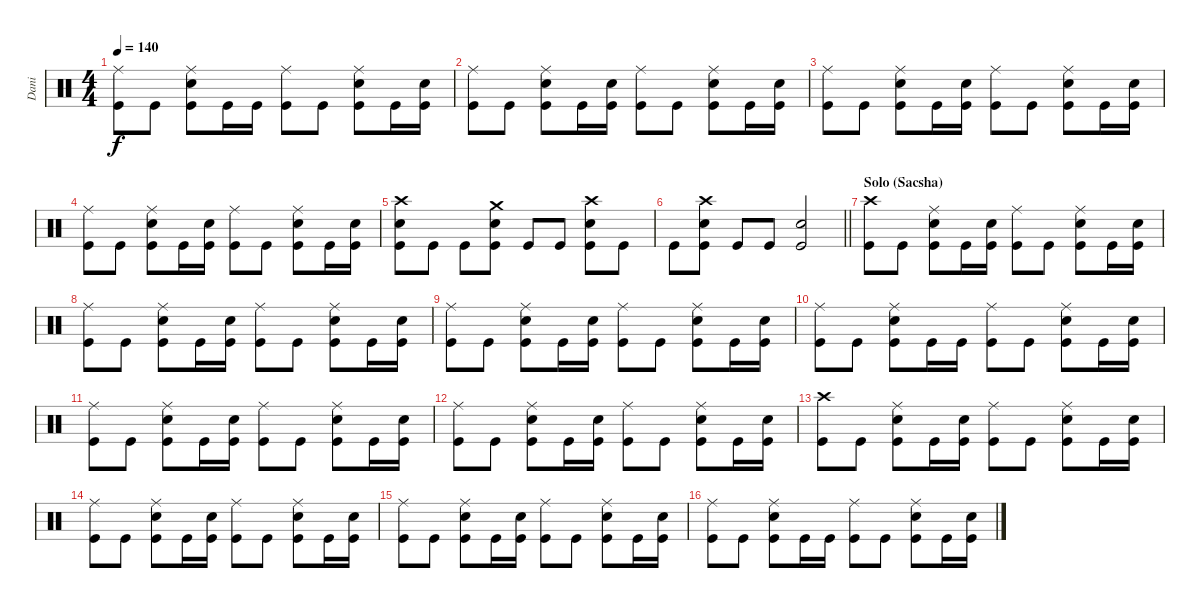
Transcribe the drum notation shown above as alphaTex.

\track ("Dani" "Dani") {instrument percussion}
\staff {score}
\articulation defaults
\ts (4 4)
\tempo 140
\clef neutral
\ks c
("Ride (middle)" "Kick (hit)").8{dy f} "Kick (hit)".8 ("Ride (middle)" "Snare (hit) 2" "Kick (hit)").8 "Kick (hit)".16 "Kick (hit)".16 ("Ride (middle)" "Kick (hit)").8 "Kick (hit)".8 ("Ride (middle)" "Snare (hit) 2" "Kick (hit)").8 "Kick (hit)".16 ("Snare (hit) 2" "Kick (hit)").16 |
("Ride (middle)" "Kick (hit)").8 "Kick (hit)".8 ("Ride (middle)" "Snare (hit) 2" "Kick (hit)").8 "Kick (hit)".16 ("Snare (hit) 2" "Kick (hit)").16 ("Ride (middle)" "Kick (hit)").8 "Kick (hit)".8 ("Ride (middle)" "Snare (hit) 2" "Kick (hit)").8 "Kick (hit)".16 ("Snare (hit) 2" "Kick (hit)").16 |
("Ride (middle)" "Kick (hit)").8 "Kick (hit)".8 ("Ride (middle)" "Snare (hit) 2" "Kick (hit)").8 "Kick (hit)".16 ("Snare (hit) 2" "Kick (hit)").16 ("Ride (middle)" "Kick (hit)").8 "Kick (hit)".8 ("Ride (middle)" "Snare (hit) 2" "Kick (hit)").8 "Kick (hit)".16 ("Snare (hit) 2" "Kick (hit)").16 |
("Ride (middle)" "Kick (hit)").8 "Kick (hit)".8 ("Ride (middle)" "Snare (hit) 2" "Kick (hit)").8 "Kick (hit)".16 ("Snare (hit) 2" "Kick (hit)").16 ("Ride (middle)" "Kick (hit)").8 "Kick (hit)".8 ("Ride (middle)" "Snare (hit) 2" "Kick (hit)").8 "Kick (hit)".16 ("Snare (hit) 2" "Kick (hit)").16 |
("Crash high (hit)" "Snare (hit) 2" "Kick (hit)").8 "Kick (hit)".8 "Kick (hit)".8 ("Crash medium (hit)" "Snare (hit) 2" "Kick (hit)").8 "Kick (hit)".8 "Kick (hit)".8 ("Crash high (hit)" "Snare (hit) 2" "Kick (hit)").8 "Kick (hit)".8 |
\barLineRight lightlight "Kick (hit)".8
("Crash high (hit)" "Snare (hit) 2" "Kick (hit)").8 "Kick (hit)".8 "Kick (hit)".8 ("Snare (hit) 2" "Kick (hit)").2 |
\section ("" "Solo (Sacsha)")
("Crash high (hit)" "Kick (hit)").8 "Kick (hit)".8 ("Ride (middle)" "Snare (hit) 2" "Kick (hit)").8 "Kick (hit)".16 ("Snare (hit) 2" "Kick (hit)").16 ("Ride (middle)" "Kick (hit)").8 "Kick (hit)".8 ("Ride (middle)" "Snare (hit) 2" "Kick (hit)").8 "Kick (hit)".16 ("Snare (hit) 2" "Kick (hit)").16 |
("Ride (middle)" "Kick (hit)").8 "Kick (hit)".8 ("Ride (middle)" "Snare (hit) 2" "Kick (hit)").8 "Kick (hit)".16 ("Snare (hit) 2" "Kick (hit)").16 ("Ride (middle)" "Kick (hit)").8 "Kick (hit)".8 ("Ride (middle)" "Snare (hit) 2" "Kick (hit)").8 "Kick (hit)".16 ("Snare (hit) 2" "Kick (hit)").16 |
("Ride (middle)" "Kick (hit)").8 "Kick (hit)".8 ("Ride (middle)" "Snare (hit) 2" "Kick (hit)").8 "Kick (hit)".16 ("Snare (hit) 2" "Kick (hit)").16 ("Ride (middle)" "Kick (hit)").8 "Kick (hit)".8 ("Ride (middle)" "Snare (hit) 2" "Kick (hit)").8 "Kick (hit)".16 ("Snare (hit) 2" "Kick (hit)").16 |
("Ride (middle)" "Kick (hit)").8 "Kick (hit)".8 ("Ride (middle)" "Snare (hit) 2" "Kick (hit)").8 "Kick (hit)".16 "Kick (hit)".16 ("Ride (middle)" "Kick (hit)").8 "Kick (hit)".8 ("Ride (middle)" "Snare (hit) 2" "Kick (hit)").8 "Kick (hit)".16 ("Snare (hit) 2" "Kick (hit)").16 |
("Ride (middle)" "Kick (hit)").8 "Kick (hit)".8 ("Ride (middle)" "Snare (hit) 2" "Kick (hit)").8 "Kick (hit)".16 ("Snare (hit) 2" "Kick (hit)").16 ("Ride (middle)" "Kick (hit)").8 "Kick (hit)".8 ("Ride (middle)" "Snare (hit) 2" "Kick (hit)").8 "Kick (hit)".16 ("Snare (hit) 2" "Kick (hit)").16 |
("Ride (middle)" "Kick (hit)").8 "Kick (hit)".8 ("Ride (middle)" "Snare (hit) 2" "Kick (hit)").8 "Kick (hit)".16 ("Snare (hit) 2" "Kick (hit)").16 ("Ride (middle)" "Kick (hit)").8 "Kick (hit)".8 ("Ride (middle)" "Snare (hit) 2" "Kick (hit)").8 "Kick (hit)".16 ("Snare (hit) 2" "Kick (hit)").16 |
("Crash high (hit)" "Kick (hit)").8 "Kick (hit)".8 ("Ride (middle)" "Snare (hit) 2" "Kick (hit)").8 "Kick (hit)".16 ("Snare (hit) 2" "Kick (hit)").16 ("Ride (middle)" "Kick (hit)").8 "Kick (hit)".8 ("Ride (middle)" "Snare (hit) 2" "Kick (hit)").8 "Kick (hit)".16 ("Snare (hit) 2" "Kick (hit)").16 |
("Ride (middle)" "Kick (hit)").8 "Kick (hit)".8 ("Ride (middle)" "Snare (hit) 2" "Kick (hit)").8 "Kick (hit)".16 ("Snare (hit) 2" "Kick (hit)").16 ("Ride (middle)" "Kick (hit)").8 "Kick (hit)".8 ("Ride (middle)" "Snare (hit) 2" "Kick (hit)").8 "Kick (hit)".16 ("Snare (hit) 2" "Kick (hit)").16 |
("Ride (middle)" "Kick (hit)").8 "Kick (hit)".8 ("Ride (middle)" "Snare (hit) 2" "Kick (hit)").8 "Kick (hit)".16 ("Snare (hit) 2" "Kick (hit)").16 ("Ride (middle)" "Kick (hit)").8 "Kick (hit)".8 ("Ride (middle)" "Snare (hit) 2" "Kick (hit)").8 "Kick (hit)".16 ("Snare (hit) 2" "Kick (hit)").16 |
("Ride (middle)" "Kick (hit)").8 "Kick (hit)".8 ("Ride (middle)" "Snare (hit) 2" "Kick (hit)").8 "Kick (hit)".16 "Kick (hit)".16 ("Ride (middle)" "Kick (hit)").8 "Kick (hit)".8 ("Ride (middle)" "Snare (hit) 2" "Kick (hit)").8 "Kick (hit)".16 ("Snare (hit) 2" "Kick (hit)").16
